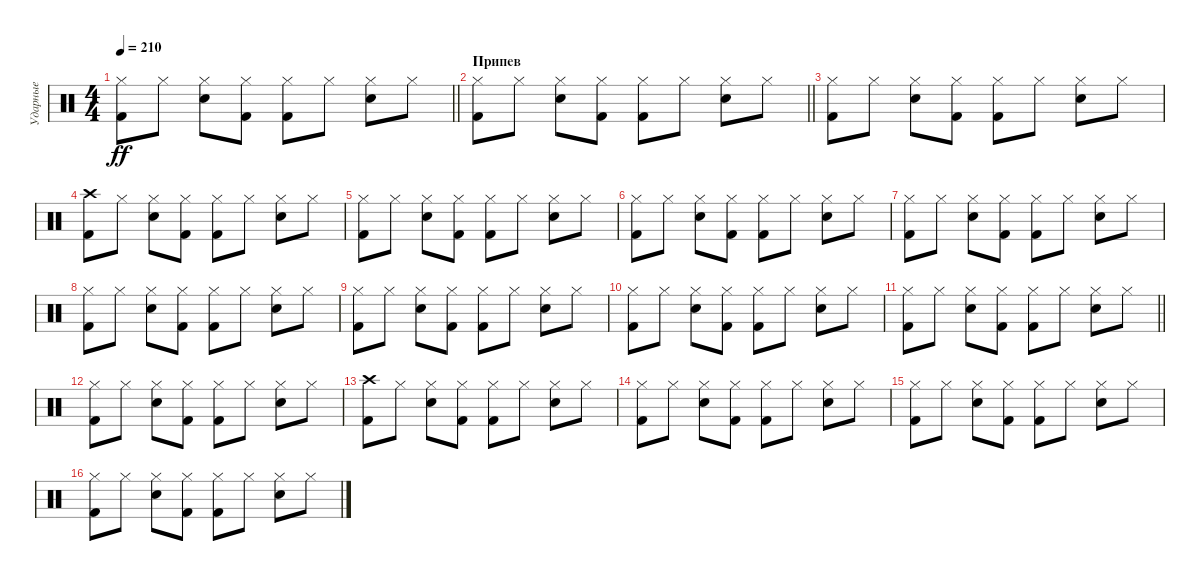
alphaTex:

\track ("Ударные" "Ударные") {instrument percussion}
\staff {score}
\articulation defaults
\ts (4 4)
\tempo 210
\clef neutral
\barLineRight lightlight
\ks c
("Hi-Hat (closed)" "Kick (hit) 2").8{dy ff} "Hi-Hat (closed)".8 ("Hi-Hat (closed)" "Snare (hit) 2").8 ("Hi-Hat (closed)" "Kick (hit) 2").8 ("Hi-Hat (closed)" "Kick (hit) 2").8 "Hi-Hat (closed)".8 ("Hi-Hat (closed)" "Snare (hit) 2").8 "Hi-Hat (closed)".8 |
\section ("" "Припев")
\barLineRight lightlight
("Hi-Hat (closed)" "Kick (hit) 2").8 "Hi-Hat (closed)".8 ("Hi-Hat (closed)" "Snare (hit) 2").8 ("Hi-Hat (closed)" "Kick (hit) 2").8 ("Hi-Hat (closed)" "Kick (hit) 2").8 "Hi-Hat (closed)".8 ("Hi-Hat (closed)" "Snare (hit) 2").8 "Hi-Hat (closed)".8 |
("Hi-Hat (closed)" "Kick (hit) 2").8 "Hi-Hat (closed)".8 ("Hi-Hat (closed)" "Snare (hit) 2").8 ("Hi-Hat (closed)" "Kick (hit) 2").8 ("Hi-Hat (closed)" "Kick (hit) 2").8 "Hi-Hat (closed)".8 ("Hi-Hat (closed)" "Snare (hit) 2").8 "Hi-Hat (closed)".8 |
("Crash high (hit)" "Kick (hit) 2").8 "Hi-Hat (closed)".8 ("Hi-Hat (closed)" "Snare (hit) 2").8 ("Hi-Hat (closed)" "Kick (hit) 2").8 ("Hi-Hat (closed)" "Kick (hit) 2").8 "Hi-Hat (closed)".8 ("Hi-Hat (closed)" "Snare (hit) 2").8 "Hi-Hat (closed)".8 |
("Hi-Hat (closed)" "Kick (hit) 2").8 "Hi-Hat (closed)".8 ("Hi-Hat (closed)" "Snare (hit) 2").8 ("Hi-Hat (closed)" "Kick (hit) 2").8 ("Hi-Hat (closed)" "Kick (hit) 2").8 "Hi-Hat (closed)".8 ("Hi-Hat (closed)" "Snare (hit) 2").8 "Hi-Hat (closed)".8 |
("Hi-Hat (closed)" "Kick (hit) 2").8 "Hi-Hat (closed)".8 ("Hi-Hat (closed)" "Snare (hit) 2").8 ("Hi-Hat (closed)" "Kick (hit) 2").8 ("Hi-Hat (closed)" "Kick (hit) 2").8 "Hi-Hat (closed)".8 ("Hi-Hat (closed)" "Snare (hit) 2").8 "Hi-Hat (closed)".8 |
("Hi-Hat (closed)" "Kick (hit) 2").8 "Hi-Hat (closed)".8 ("Hi-Hat (closed)" "Snare (hit) 2").8 ("Hi-Hat (closed)" "Kick (hit) 2").8 ("Hi-Hat (closed)" "Kick (hit) 2").8 "Hi-Hat (closed)".8 ("Hi-Hat (closed)" "Snare (hit) 2").8 "Hi-Hat (closed)".8 |
("Hi-Hat (closed)" "Kick (hit) 2").8 "Hi-Hat (closed)".8 ("Hi-Hat (closed)" "Snare (hit) 2").8 ("Hi-Hat (closed)" "Kick (hit) 2").8 ("Hi-Hat (closed)" "Kick (hit) 2").8 "Hi-Hat (closed)".8 ("Hi-Hat (closed)" "Snare (hit) 2").8 "Hi-Hat (closed)".8 |
("Hi-Hat (closed)" "Kick (hit) 2").8 "Hi-Hat (closed)".8 ("Hi-Hat (closed)" "Snare (hit) 2").8 ("Hi-Hat (closed)" "Kick (hit) 2").8 ("Hi-Hat (closed)" "Kick (hit) 2").8 "Hi-Hat (closed)".8 ("Hi-Hat (closed)" "Snare (hit) 2").8 "Hi-Hat (closed)".8 |
("Hi-Hat (closed)" "Kick (hit) 2").8 "Hi-Hat (closed)".8 ("Hi-Hat (closed)" "Snare (hit) 2").8 ("Hi-Hat (closed)" "Kick (hit) 2").8 ("Hi-Hat (closed)" "Kick (hit) 2").8 "Hi-Hat (closed)".8 ("Hi-Hat (closed)" "Snare (hit) 2").8 "Hi-Hat (closed)".8 |
\barLineRight lightlight
("Hi-Hat (closed)" "Kick (hit) 2").8 "Hi-Hat (closed)".8 ("Hi-Hat (closed)" "Snare (hit) 2").8 ("Hi-Hat (closed)" "Kick (hit) 2").8 ("Hi-Hat (closed)" "Kick (hit) 2").8 "Hi-Hat (closed)".8 ("Hi-Hat (closed)" "Snare (hit) 2").8 "Hi-Hat (closed)".8 |
("Hi-Hat (closed)" "Kick (hit) 2").8 "Hi-Hat (closed)".8 ("Hi-Hat (closed)" "Snare (hit) 2").8 ("Hi-Hat (closed)" "Kick (hit) 2").8 ("Hi-Hat (closed)" "Kick (hit) 2").8 "Hi-Hat (closed)".8 ("Hi-Hat (closed)" "Snare (hit) 2").8 "Hi-Hat (closed)".8 |
("Crash high (hit)" "Kick (hit) 2").8 "Hi-Hat (closed)".8 ("Hi-Hat (closed)" "Snare (hit) 2").8 ("Hi-Hat (closed)" "Kick (hit) 2").8 ("Hi-Hat (closed)" "Kick (hit) 2").8 "Hi-Hat (closed)".8 ("Hi-Hat (closed)" "Snare (hit) 2").8 "Hi-Hat (closed)".8 |
("Hi-Hat (closed)" "Kick (hit) 2").8 "Hi-Hat (closed)".8 ("Hi-Hat (closed)" "Snare (hit) 2").8 ("Hi-Hat (closed)" "Kick (hit) 2").8 ("Hi-Hat (closed)" "Kick (hit) 2").8 "Hi-Hat (closed)".8 ("Hi-Hat (closed)" "Snare (hit) 2").8 "Hi-Hat (closed)".8 |
("Hi-Hat (closed)" "Kick (hit) 2").8 "Hi-Hat (closed)".8 ("Hi-Hat (closed)" "Snare (hit) 2").8 ("Hi-Hat (closed)" "Kick (hit) 2").8 ("Hi-Hat (closed)" "Kick (hit) 2").8 "Hi-Hat (closed)".8 ("Hi-Hat (closed)" "Snare (hit) 2").8 "Hi-Hat (closed)".8 |
("Hi-Hat (closed)" "Kick (hit) 2").8 "Hi-Hat (closed)".8 ("Hi-Hat (closed)" "Snare (hit) 2").8 ("Hi-Hat (closed)" "Kick (hit) 2").8 ("Hi-Hat (closed)" "Kick (hit) 2").8 "Hi-Hat (closed)".8 ("Hi-Hat (closed)" "Snare (hit) 2").8 "Hi-Hat (closed)".8
